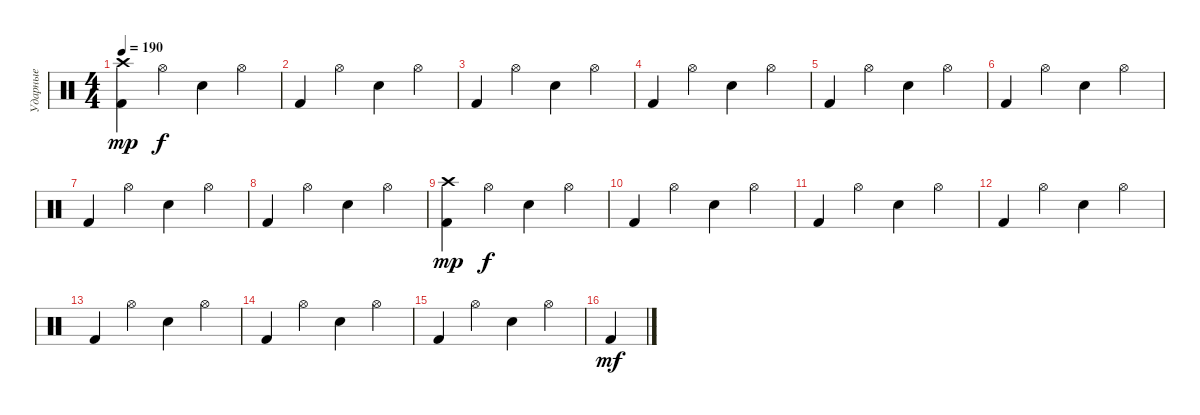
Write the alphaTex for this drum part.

\track ("Ударные" "Ударные") {instrument percussion}
\staff {score}
\articulation defaults
\ts (4 4)
\tempo 190
\clef neutral
\ks c
("Crash high (hit)" "Kick (hit) 2").4{dy mp} "Hi-Hat (open)".4{dy f} "Snare (hit) 2".4 "Hi-Hat (open)".4 |
"Kick (hit) 2".4 "Hi-Hat (open)".4 "Snare (hit) 2".4 "Hi-Hat (open)".4 |
"Kick (hit) 2".4 "Hi-Hat (open)".4 "Snare (hit) 2".4 "Hi-Hat (open)".4 |
"Kick (hit) 2".4 "Hi-Hat (open)".4 "Snare (hit) 2".4 "Hi-Hat (open)".4 |
"Kick (hit) 2".4 "Hi-Hat (open)".4 "Snare (hit) 2".4 "Hi-Hat (open)".4 |
"Kick (hit) 2".4 "Hi-Hat (open)".4 "Snare (hit) 2".4 "Hi-Hat (open)".4 |
"Kick (hit) 2".4 "Hi-Hat (open)".4 "Snare (hit) 2".4 "Hi-Hat (open)".4 |
"Kick (hit) 2".4 "Hi-Hat (open)".4 "Snare (hit) 2".4 "Hi-Hat (open)".4 |
("Crash high (hit)" "Kick (hit) 2").4{dy mp} "Hi-Hat (open)".4{dy f} "Snare (hit) 2".4 "Hi-Hat (open)".4 |
"Kick (hit) 2".4 "Hi-Hat (open)".4 "Snare (hit) 2".4 "Hi-Hat (open)".4 |
"Kick (hit) 2".4 "Hi-Hat (open)".4 "Snare (hit) 2".4 "Hi-Hat (open)".4 |
"Kick (hit) 2".4 "Hi-Hat (open)".4 "Snare (hit) 2".4 "Hi-Hat (open)".4 |
"Kick (hit) 2".4 "Hi-Hat (open)".4 "Snare (hit) 2".4 "Hi-Hat (open)".4 |
"Kick (hit) 2".4 "Hi-Hat (open)".4 "Snare (hit) 2".4 "Hi-Hat (open)".4 |
"Kick (hit) 2".4 "Hi-Hat (open)".4 "Snare (hit) 2".4 "Hi-Hat (open)".4 |
"Kick (hit) 2".4{dy mf}
